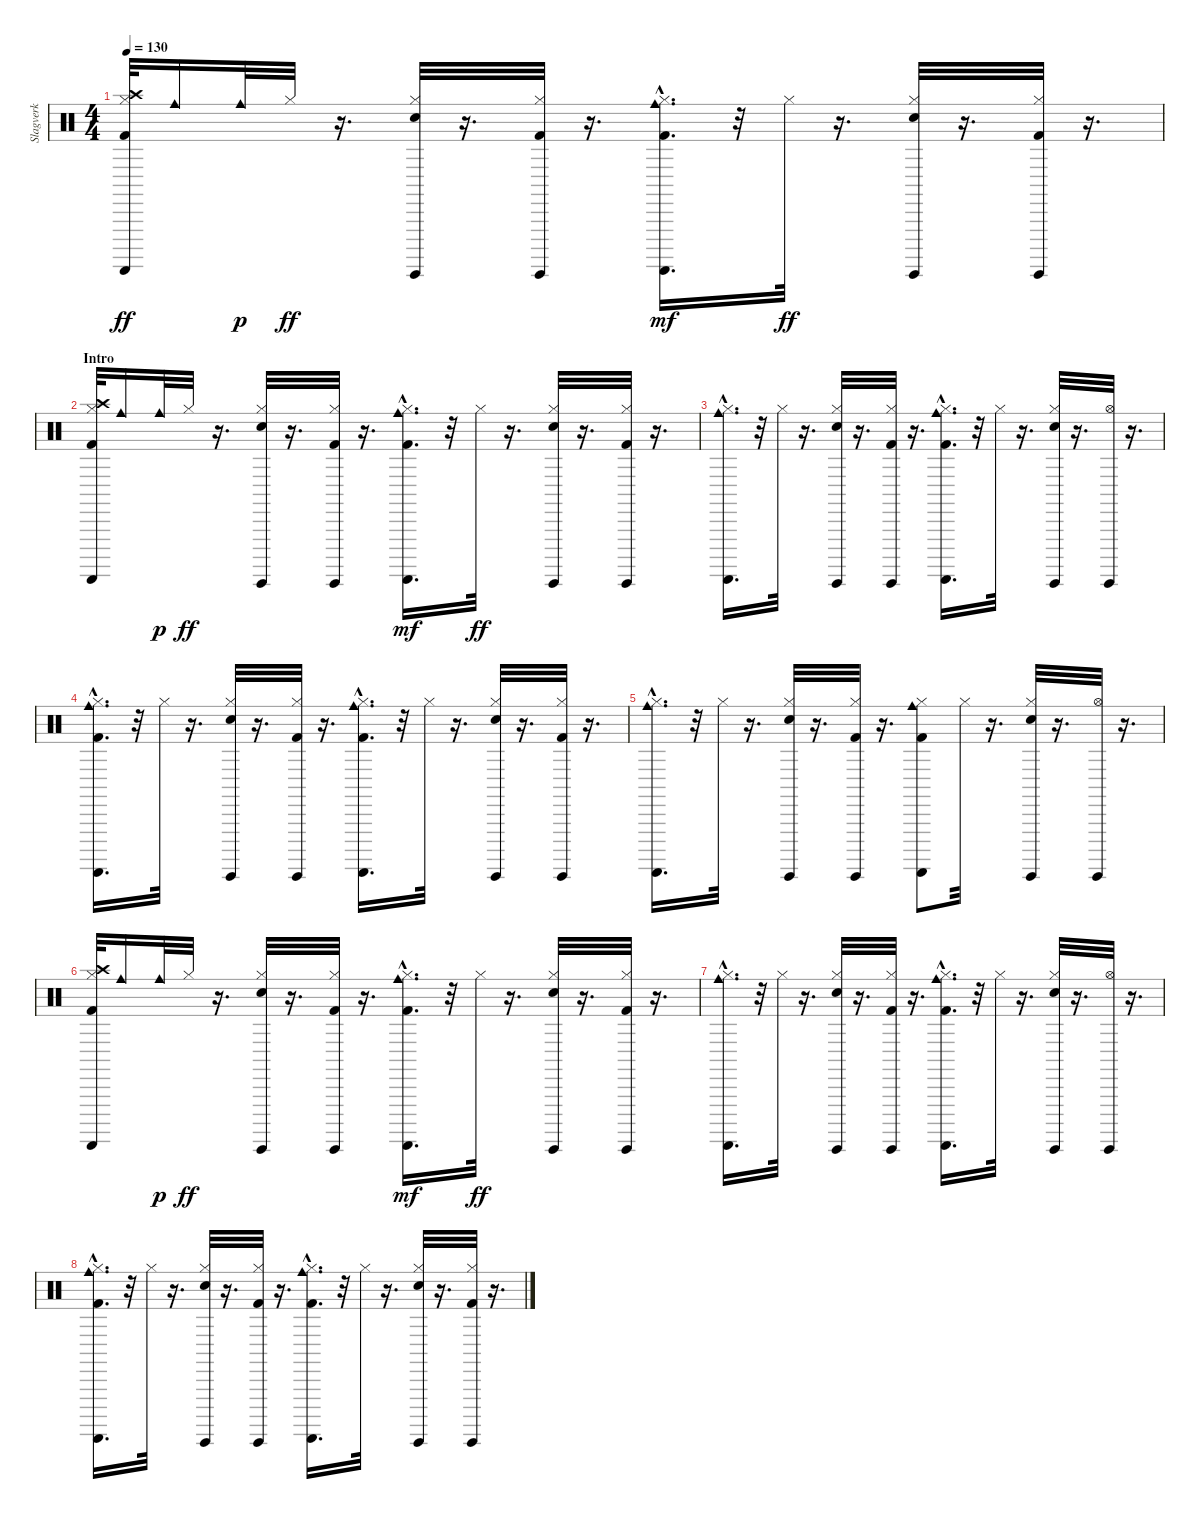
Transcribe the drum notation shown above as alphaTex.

\track ("Slagverk" "Slagverk") {instrument percussion}
\staff {score}
\articulation defaults
\ts (4 4)
\tempo 130
\clef neutral
\ks c
("Kick (hit) 2" "Hi-Hat (closed)" "Crash high (hit)" "Guiro (scrap-return)").32{dy ff} "Cowbell medium (hit)".16 "Cowbell medium (hit)".32{dy p} "Hi-Hat (closed)".32{dy ff} r.16{d} ("Guiro (hit)" "Snare (hit) 2" "Hi-Hat (closed)").32 r.16{d} ("Hi-Hat (closed)" "Kick (hit) 2" "Guiro (hit)").32 r.16{d} ("Guiro (scrap-return)" "Kick (hit) 2" "Hi-Hat (closed)" "Cowbell medium (hit)"{hac}).16{d dy mf} r.32 "Hi-Hat (closed)".32{dy ff} r.16{d} ("Hi-Hat (closed)" "Guiro (hit)" "Snare (hit) 2").32 r.16{d} ("Kick (hit) 2" "Guiro (hit)" "Hi-Hat (closed)").32 r.16{d} |
\section ("" "Intro")
("Kick (hit) 2" "Hi-Hat (closed)" "Crash high (hit)" "Guiro (scrap-return)").32 "Cowbell medium (hit)".16 "Cowbell medium (hit)".32{dy p} "Hi-Hat (closed)".32{dy ff} r.16{d} ("Guiro (hit)" "Snare (hit) 2" "Hi-Hat (closed)").32 r.16{d} ("Hi-Hat (closed)" "Kick (hit) 2" "Guiro (hit)").32 r.16{d} ("Guiro (scrap-return)" "Kick (hit) 2" "Hi-Hat (closed)" "Cowbell medium (hit)"{hac}).16{d dy mf} r.32 "Hi-Hat (closed)".32{dy ff} r.16{d} ("Hi-Hat (closed)" "Guiro (hit)" "Snare (hit) 2").32 r.16{d} ("Kick (hit) 2" "Guiro (hit)" "Hi-Hat (closed)").32 r.16{d} |
("Cowbell medium (hit)"{hac} "Guiro (scrap-return)" "Hi-Hat (closed)").16{d} r.32 "Hi-Hat (closed)".32 r.16{d} ("Guiro (hit)" "Snare (hit) 2" "Hi-Hat (closed)").32 r.16{d} ("Hi-Hat (closed)" "Kick (hit) 2" "Guiro (hit)").32 r.16{d} ("Guiro (scrap-return)" "Kick (hit) 2" "Hi-Hat (closed)" "Cowbell medium (hit)"{hac}).16{d} r.32 "Hi-Hat (closed)".32 r.16{d} ("Guiro (hit)" "Snare (hit) 2" "Hi-Hat (closed)").32 r.16{d} ("Hi-Hat (open)" "Guiro (hit)").32 r.16{d} |
("Guiro (scrap-return)" "Kick (hit) 2" "Hi-Hat (closed)" "Cowbell medium (hit)"{hac}).16{d} r.32 "Hi-Hat (closed)".32 r.16{d} ("Guiro (hit)" "Snare (hit) 2" "Hi-Hat (closed)").32 r.16{d} ("Hi-Hat (closed)" "Kick (hit) 2" "Guiro (hit)").32 r.16{d} ("Guiro (scrap-return)" "Kick (hit) 2" "Hi-Hat (closed)" "Cowbell medium (hit)"{hac}).16{d} r.32 "Hi-Hat (closed)".32 r.16{d} ("Guiro (hit)" "Snare (hit) 2" "Hi-Hat (closed)").32 r.16{d} ("Guiro (hit)" "Hi-Hat (closed)" "Kick (hit) 2").32 r.16{d} |
("Guiro (scrap-return)" "Hi-Hat (closed)" "Cowbell medium (hit)"{hac}).16{d} r.32 "Hi-Hat (closed)".32 r.16{d} ("Guiro (hit)" "Snare (hit) 2" "Hi-Hat (closed)").32 r.16{d} ("Hi-Hat (closed)" "Kick (hit) 2" "Guiro (hit)").32 r.16{d} ("Cowbell medium (hit)" "Guiro (scrap-return)" "Kick (hit) 2" "Hi-Hat (closed)").8 "Hi-Hat (closed)".32 r.16{d} ("Guiro (hit)" "Snare (hit) 2" "Hi-Hat (closed)").32 r.16{d} ("Hi-Hat (open)" "Guiro (hit)").32 r.16{d} |
("Kick (hit) 2" "Hi-Hat (closed)" "Crash high (hit)" "Guiro (scrap-return)").32 "Cowbell medium (hit)".16 "Cowbell medium (hit)".32{dy p} "Hi-Hat (closed)".32{dy ff} r.16{d} ("Guiro (hit)" "Snare (hit) 2" "Hi-Hat (closed)").32 r.16{d} ("Hi-Hat (closed)" "Kick (hit) 2" "Guiro (hit)").32 r.16{d} ("Guiro (scrap-return)" "Kick (hit) 2" "Hi-Hat (closed)" "Cowbell medium (hit)"{hac}).16{d dy mf} r.32 "Hi-Hat (closed)".32{dy ff} r.16{d} ("Hi-Hat (closed)" "Guiro (hit)" "Snare (hit) 2").32 r.16{d} ("Kick (hit) 2" "Guiro (hit)" "Hi-Hat (closed)").32 r.16{d} |
("Cowbell medium (hit)"{hac} "Guiro (scrap-return)" "Hi-Hat (closed)").16{d} r.32 "Hi-Hat (closed)".32 r.16{d} ("Guiro (hit)" "Snare (hit) 2" "Hi-Hat (closed)").32 r.16{d} ("Hi-Hat (closed)" "Kick (hit) 2" "Guiro (hit)").32 r.16{d} ("Guiro (scrap-return)" "Kick (hit) 2" "Hi-Hat (closed)" "Cowbell medium (hit)"{hac}).16{d} r.32 "Hi-Hat (closed)".32 r.16{d} ("Guiro (hit)" "Snare (hit) 2" "Hi-Hat (closed)").32 r.16{d} ("Hi-Hat (open)" "Guiro (hit)").32 r.16{d} |
("Guiro (scrap-return)" "Kick (hit) 2" "Hi-Hat (closed)" "Cowbell medium (hit)"{hac}).16{d} r.32 "Hi-Hat (closed)".32 r.16{d} ("Guiro (hit)" "Snare (hit) 2" "Hi-Hat (closed)").32 r.16{d} ("Hi-Hat (closed)" "Kick (hit) 2" "Guiro (hit)").32 r.16{d} ("Guiro (scrap-return)" "Kick (hit) 2" "Hi-Hat (closed)" "Cowbell medium (hit)"{hac}).16{d} r.32 "Hi-Hat (closed)".32 r.16{d} ("Guiro (hit)" "Snare (hit) 2" "Hi-Hat (closed)").32 r.16{d} ("Guiro (hit)" "Hi-Hat (closed)" "Kick (hit) 2").32 r.16{d}
